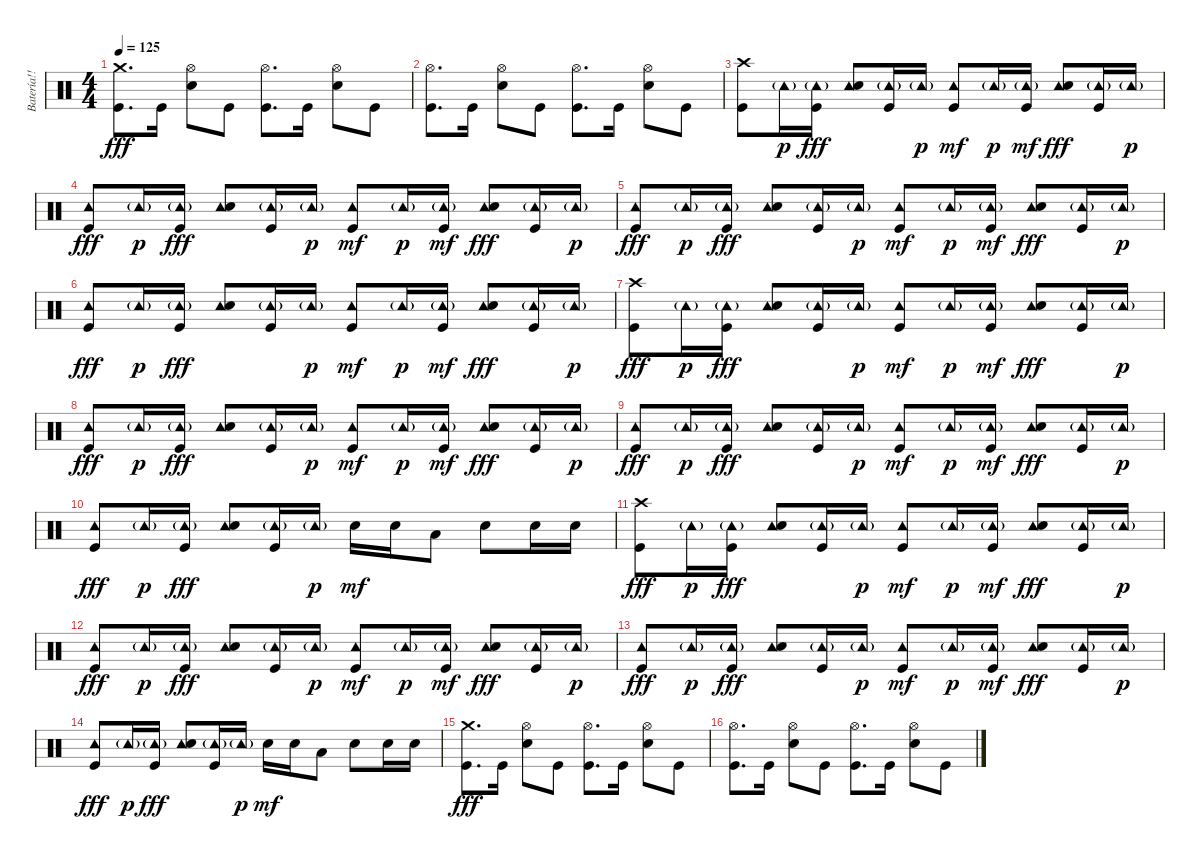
\track ("Batería!! >_<" "Batería!! ") {instrument percussion}
\staff {score}
\articulation defaults
\ts (4 4)
\tempo 125
\clef neutral
\ks c
("Crash medium (hit)" "Kick (hit)").8{d dy fff} "Kick (hit)".16 ("Hi-Hat (open)" "Snare (hit) 2").8 "Kick (hit)".8 ("Hi-Hat (open)" "Kick (hit)").8{d} "Kick (hit)".16 ("Hi-Hat (open)" "Snare (hit) 2").8 "Kick (hit)".8 |
("Hi-Hat (open)" "Kick (hit)").8{d} "Kick (hit)".16 ("Hi-Hat (open)" "Snare (hit) 2").8 "Kick (hit)".8 ("Hi-Hat (open)" "Kick (hit)").8{d} "Kick (hit)".16 ("Hi-Hat (open)" "Snare (hit) 2").8 "Kick (hit)".8 |
("Crash high (hit)" "Kick (hit)").8 "Tambourine (hit)"{g}.16{dy p} ("Tambourine (hit)"{g} "Kick (hit)").16{dy fff} ("Tambourine (hit)" "Snare (hit) 2").8 ("Tambourine (hit)"{g} "Kick (hit)").16 "Tambourine (hit)"{g}.16{dy p} ("Tambourine (hit)" "Kick (hit)").8{dy mf} "Tambourine (hit)"{g}.16{dy p} ("Tambourine (hit)"{g} "Kick (hit)").16{dy mf} ("Tambourine (hit)" "Snare (hit) 2").8{dy fff} ("Tambourine (hit)"{g} "Kick (hit)").16 "Tambourine (hit)"{g}.16{dy p} |
("Tambourine (hit)" "Kick (hit)").8{dy fff} "Tambourine (hit)"{g}.16{dy p} ("Tambourine (hit)"{g} "Kick (hit)").16{dy fff} ("Tambourine (hit)" "Snare (hit) 2").8 ("Tambourine (hit)"{g} "Kick (hit)").16 "Tambourine (hit)"{g}.16{dy p} ("Tambourine (hit)" "Kick (hit)").8{dy mf} "Tambourine (hit)"{g}.16{dy p} ("Tambourine (hit)"{g} "Kick (hit)").16{dy mf} ("Tambourine (hit)" "Snare (hit) 2").8{dy fff} ("Tambourine (hit)"{g} "Kick (hit)").16 "Tambourine (hit)"{g}.16{dy p} |
("Tambourine (hit)" "Kick (hit)").8{dy fff} "Tambourine (hit)"{g}.16{dy p} ("Tambourine (hit)"{g} "Kick (hit)").16{dy fff} ("Tambourine (hit)" "Snare (hit) 2").8 ("Tambourine (hit)"{g} "Kick (hit)").16 "Tambourine (hit)"{g}.16{dy p} ("Tambourine (hit)" "Kick (hit)").8{dy mf} "Tambourine (hit)"{g}.16{dy p} ("Tambourine (hit)"{g} "Kick (hit)").16{dy mf} ("Tambourine (hit)" "Snare (hit) 2").8{dy fff} ("Tambourine (hit)"{g} "Kick (hit)").16 "Tambourine (hit)"{g}.16{dy p} |
("Tambourine (hit)" "Kick (hit)").8{dy fff} "Tambourine (hit)"{g}.16{dy p} ("Tambourine (hit)"{g} "Kick (hit)").16{dy fff} ("Tambourine (hit)" "Snare (hit) 2").8 ("Tambourine (hit)"{g} "Kick (hit)").16 "Tambourine (hit)"{g}.16{dy p} ("Tambourine (hit)" "Kick (hit)").8{dy mf} "Tambourine (hit)"{g}.16{dy p} ("Tambourine (hit)"{g} "Kick (hit)").16{dy mf} ("Tambourine (hit)" "Snare (hit) 2").8{dy fff} ("Tambourine (hit)"{g} "Kick (hit)").16 "Tambourine (hit)"{g}.16{dy p} |
("Crash high (hit)" "Kick (hit)").8{dy fff} "Tambourine (hit)"{g}.16{dy p} ("Tambourine (hit)"{g} "Kick (hit)").16{dy fff} ("Tambourine (hit)" "Snare (hit) 2").8 ("Tambourine (hit)"{g} "Kick (hit)").16 "Tambourine (hit)"{g}.16{dy p} ("Tambourine (hit)" "Kick (hit)").8{dy mf} "Tambourine (hit)"{g}.16{dy p} ("Tambourine (hit)"{g} "Kick (hit)").16{dy mf} ("Tambourine (hit)" "Snare (hit) 2").8{dy fff} ("Tambourine (hit)"{g} "Kick (hit)").16 "Tambourine (hit)"{g}.16{dy p} |
("Tambourine (hit)" "Kick (hit)").8{dy fff} "Tambourine (hit)"{g}.16{dy p} ("Tambourine (hit)"{g} "Kick (hit)").16{dy fff} ("Tambourine (hit)" "Snare (hit) 2").8 ("Tambourine (hit)"{g} "Kick (hit)").16 "Tambourine (hit)"{g}.16{dy p} ("Tambourine (hit)" "Kick (hit)").8{dy mf} "Tambourine (hit)"{g}.16{dy p} ("Tambourine (hit)"{g} "Kick (hit)").16{dy mf} ("Tambourine (hit)" "Snare (hit) 2").8{dy fff} ("Tambourine (hit)"{g} "Kick (hit)").16 "Tambourine (hit)"{g}.16{dy p} |
("Tambourine (hit)" "Kick (hit)").8{dy fff} "Tambourine (hit)"{g}.16{dy p} ("Tambourine (hit)"{g} "Kick (hit)").16{dy fff} ("Tambourine (hit)" "Snare (hit) 2").8 ("Tambourine (hit)"{g} "Kick (hit)").16 "Tambourine (hit)"{g}.16{dy p} ("Tambourine (hit)" "Kick (hit)").8{dy mf} "Tambourine (hit)"{g}.16{dy p} ("Tambourine (hit)"{g} "Kick (hit)").16{dy mf} ("Tambourine (hit)" "Snare (hit) 2").8{dy fff} ("Tambourine (hit)"{g} "Kick (hit)").16 "Tambourine (hit)"{g}.16{dy p} |
("Tambourine (hit)" "Kick (hit)").8{dy fff} "Tambourine (hit)"{g}.16{dy p} ("Tambourine (hit)"{g} "Kick (hit)").16{dy fff} ("Tambourine (hit)" "Snare (hit) 2").8 ("Tambourine (hit)"{g} "Kick (hit)").16 "Tambourine (hit)"{g}.16{dy p} "Snare (hit) 2".16{dy mf} "Snare (hit) 2".16 "Low Tom (hit)".8 "Snare (hit) 2".8 "Snare (hit) 2".16 "Snare (hit) 2".16 |
("Crash high (hit)" "Kick (hit)").8{dy fff} "Tambourine (hit)"{g}.16{dy p} ("Tambourine (hit)"{g} "Kick (hit)").16{dy fff} ("Tambourine (hit)" "Snare (hit) 2").8 ("Tambourine (hit)"{g} "Kick (hit)").16 "Tambourine (hit)"{g}.16{dy p} ("Tambourine (hit)" "Kick (hit)").8{dy mf} "Tambourine (hit)"{g}.16{dy p} ("Tambourine (hit)"{g} "Kick (hit)").16{dy mf} ("Tambourine (hit)" "Snare (hit) 2").8{dy fff} ("Tambourine (hit)"{g} "Kick (hit)").16 "Tambourine (hit)"{g}.16{dy p} |
("Tambourine (hit)" "Kick (hit)").8{dy fff} "Tambourine (hit)"{g}.16{dy p} ("Tambourine (hit)"{g} "Kick (hit)").16{dy fff} ("Tambourine (hit)" "Snare (hit) 2").8 ("Tambourine (hit)"{g} "Kick (hit)").16 "Tambourine (hit)"{g}.16{dy p} ("Tambourine (hit)" "Kick (hit)").8{dy mf} "Tambourine (hit)"{g}.16{dy p} ("Tambourine (hit)"{g} "Kick (hit)").16{dy mf} ("Tambourine (hit)" "Snare (hit) 2").8{dy fff} ("Tambourine (hit)"{g} "Kick (hit)").16 "Tambourine (hit)"{g}.16{dy p} |
("Tambourine (hit)" "Kick (hit)").8{dy fff} "Tambourine (hit)"{g}.16{dy p} ("Tambourine (hit)"{g} "Kick (hit)").16{dy fff} ("Tambourine (hit)" "Snare (hit) 2").8 ("Tambourine (hit)"{g} "Kick (hit)").16 "Tambourine (hit)"{g}.16{dy p} ("Tambourine (hit)" "Kick (hit)").8{dy mf} "Tambourine (hit)"{g}.16{dy p} ("Tambourine (hit)"{g} "Kick (hit)").16{dy mf} ("Tambourine (hit)" "Snare (hit) 2").8{dy fff} ("Tambourine (hit)"{g} "Kick (hit)").16 "Tambourine (hit)"{g}.16{dy p} |
("Tambourine (hit)" "Kick (hit)").8{dy fff} "Tambourine (hit)"{g}.16{dy p} ("Tambourine (hit)"{g} "Kick (hit)").16{dy fff} ("Tambourine (hit)" "Snare (hit) 2").8 ("Tambourine (hit)"{g} "Kick (hit)").16 "Tambourine (hit)"{g}.16{dy p} "Snare (hit) 2".16{dy mf} "Snare (hit) 2".16 "Low Tom (hit)".8 "Snare (hit) 2".8 "Snare (hit) 2".16 "Snare (hit) 2".16 |
("Crash medium (hit)" "Kick (hit)").8{d dy fff} "Kick (hit)".16 ("Hi-Hat (open)" "Snare (hit) 2").8 "Kick (hit)".8 ("Hi-Hat (open)" "Kick (hit)").8{d} "Kick (hit)".16 ("Hi-Hat (open)" "Snare (hit) 2").8 "Kick (hit)".8 |
("Hi-Hat (open)" "Kick (hit)").8{d} "Kick (hit)".16 ("Hi-Hat (open)" "Snare (hit) 2").8 "Kick (hit)".8 ("Hi-Hat (open)" "Kick (hit)").8{d} "Kick (hit)".16 ("Hi-Hat (open)" "Snare (hit) 2").8 "Kick (hit)".8
